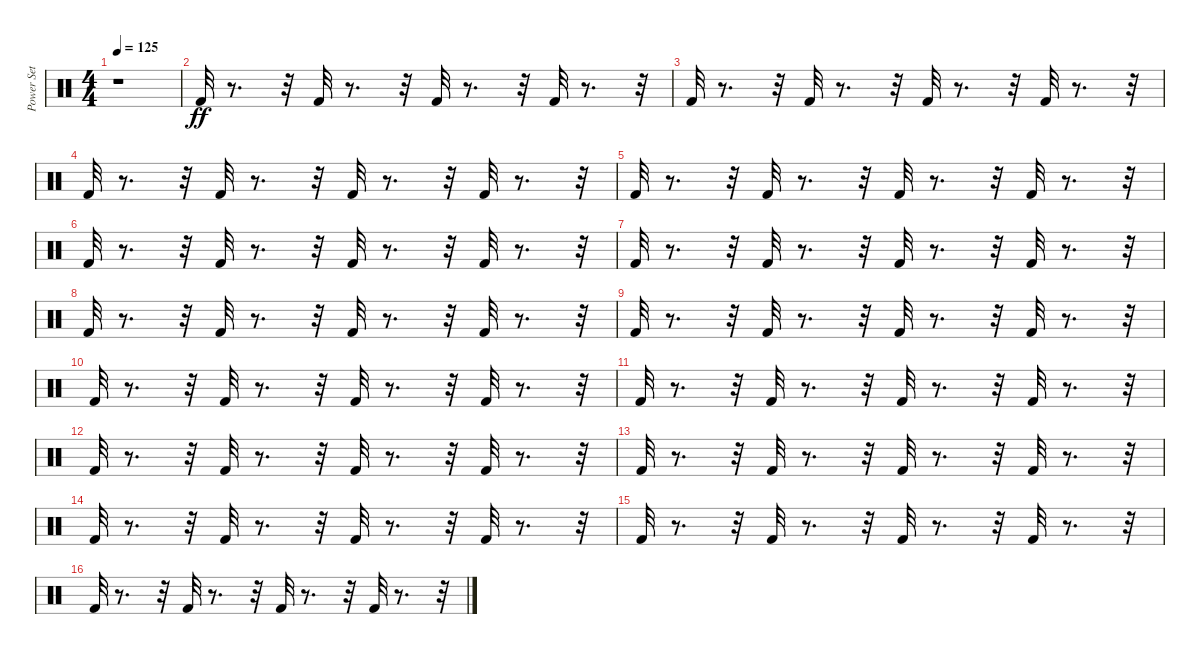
\track ("Power Set" "Power Set") {instrument percussion}
\staff {score}
\articulation defaults
\ts (4 4)
\tempo 125
\clef neutral
\ks c
r.1{dy ff} |
"Kick (hit) 2".32 r.8{d} r.32 "Kick (hit) 2".32 r.8{d} r.32 "Kick (hit) 2".32 r.8{d} r.32 "Kick (hit) 2".32 r.8{d} r.32 |
"Kick (hit) 2".32 r.8{d} r.32 "Kick (hit) 2".32 r.8{d} r.32 "Kick (hit) 2".32 r.8{d} r.32 "Kick (hit) 2".32 r.8{d} r.32 |
"Kick (hit) 2".32 r.8{d} r.32 "Kick (hit) 2".32 r.8{d} r.32 "Kick (hit) 2".32 r.8{d} r.32 "Kick (hit) 2".32 r.8{d} r.32 |
"Kick (hit) 2".32 r.8{d} r.32 "Kick (hit) 2".32 r.8{d} r.32 "Kick (hit) 2".32 r.8{d} r.32 "Kick (hit) 2".32 r.8{d} r.32 |
"Kick (hit) 2".32 r.8{d} r.32 "Kick (hit) 2".32 r.8{d} r.32 "Kick (hit) 2".32 r.8{d} r.32 "Kick (hit) 2".32 r.8{d} r.32 |
"Kick (hit) 2".32 r.8{d} r.32 "Kick (hit) 2".32 r.8{d} r.32 "Kick (hit) 2".32 r.8{d} r.32 "Kick (hit) 2".32 r.8{d} r.32 |
"Kick (hit) 2".32 r.8{d} r.32 "Kick (hit) 2".32 r.8{d} r.32 "Kick (hit) 2".32 r.8{d} r.32 "Kick (hit) 2".32 r.8{d} r.32 |
"Kick (hit) 2".32 r.8{d} r.32 "Kick (hit) 2".32 r.8{d} r.32 "Kick (hit) 2".32 r.8{d} r.32 "Kick (hit) 2".32 r.8{d} r.32 |
"Kick (hit) 2".32 r.8{d} r.32 "Kick (hit) 2".32 r.8{d} r.32 "Kick (hit) 2".32 r.8{d} r.32 "Kick (hit) 2".32 r.8{d} r.32 |
"Kick (hit) 2".32 r.8{d} r.32 "Kick (hit) 2".32 r.8{d} r.32 "Kick (hit) 2".32 r.8{d} r.32 "Kick (hit) 2".32 r.8{d} r.32 |
"Kick (hit) 2".32 r.8{d} r.32 "Kick (hit) 2".32 r.8{d} r.32 "Kick (hit) 2".32 r.8{d} r.32 "Kick (hit) 2".32 r.8{d} r.32 |
"Kick (hit) 2".32 r.8{d} r.32 "Kick (hit) 2".32 r.8{d} r.32 "Kick (hit) 2".32 r.8{d} r.32 "Kick (hit) 2".32 r.8{d} r.32 |
"Kick (hit) 2".32 r.8{d} r.32 "Kick (hit) 2".32 r.8{d} r.32 "Kick (hit) 2".32 r.8{d} r.32 "Kick (hit) 2".32 r.8{d} r.32 |
"Kick (hit) 2".32 r.8{d} r.32 "Kick (hit) 2".32 r.8{d} r.32 "Kick (hit) 2".32 r.8{d} r.32 "Kick (hit) 2".32 r.8{d} r.32 |
"Kick (hit) 2".32 r.8{d} r.32 "Kick (hit) 2".32 r.8{d} r.32 "Kick (hit) 2".32 r.8{d} r.32 "Kick (hit) 2".32 r.8{d} r.32
